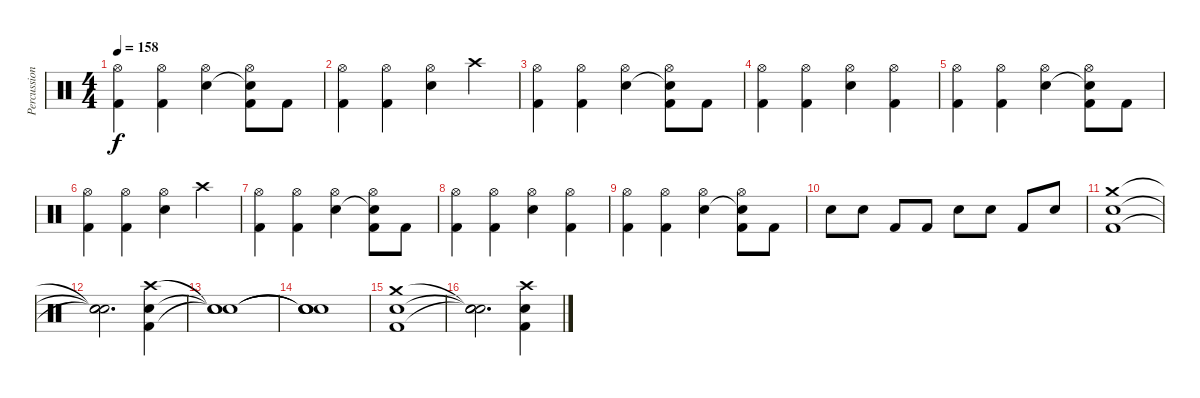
\track ("Percussions" "Percussion") {instrument percussion}
\staff {score}
\articulation defaults
\ts (4 4)
\tempo 158
\clef neutral
\ks c
("Hi-Hat (open)" "Kick (hit) 2").4{dy f} ("Hi-Hat (open)" "Kick (hit) 2").4 ("Hi-Hat (open)" "Electric Snare (hit)").4 ("Hi-Hat (open)" "Snare (hit)"{t} "Kick (hit) 2").8 "Kick (hit) 2".8 |
("Hi-Hat (open)" "Kick (hit) 2").4 ("Hi-Hat (open)" "Kick (hit) 2").4 ("Hi-Hat (open)" "Electric Snare (hit)").4 "Crash high (hit)".4 |
("Hi-Hat (open)" "Kick (hit) 2").4 ("Hi-Hat (open)" "Kick (hit) 2").4 ("Hi-Hat (open)" "Electric Snare (hit)").4 ("Hi-Hat (open)" "Snare (hit)"{t} "Kick (hit) 2").8 "Kick (hit) 2".8 |
("Hi-Hat (open)" "Kick (hit) 2").4 ("Hi-Hat (open)" "Kick (hit) 2").4 ("Hi-Hat (open)" "Electric Snare (hit)").4 ("Hi-Hat (open)" "Kick (hit) 2").4 |
("Hi-Hat (open)" "Kick (hit) 2").4 ("Hi-Hat (open)" "Kick (hit) 2").4 ("Hi-Hat (open)" "Electric Snare (hit)").4 ("Hi-Hat (open)" "Snare (hit)"{t} "Kick (hit) 2").8 "Kick (hit) 2".8 |
("Hi-Hat (open)" "Kick (hit) 2").4 ("Hi-Hat (open)" "Kick (hit) 2").4 ("Hi-Hat (open)" "Electric Snare (hit)").4 "Crash high (hit)".4 |
("Hi-Hat (open)" "Kick (hit) 2").4 ("Hi-Hat (open)" "Kick (hit) 2").4 ("Hi-Hat (open)" "Electric Snare (hit)").4 ("Hi-Hat (open)" "Snare (hit)"{t} "Kick (hit) 2").8 "Kick (hit) 2".8 |
("Hi-Hat (open)" "Kick (hit) 2").4 ("Hi-Hat (open)" "Kick (hit) 2").4 ("Hi-Hat (open)" "Electric Snare (hit)").4 ("Hi-Hat (open)" "Kick (hit) 2").4 |
("Hi-Hat (open)" "Kick (hit) 2").4 ("Hi-Hat (open)" "Kick (hit) 2").4 ("Hi-Hat (open)" "Electric Snare (hit)").4 ("Hi-Hat (open)" "Snare (hit)"{t} "Kick (hit) 2").8 "Kick (hit) 2".8 |
"Electric Snare (hit)".8 "Electric Snare (hit)".8 "Kick (hit) 2".8 "Kick (hit) 2".8 "Electric Snare (hit)".8 "Electric Snare (hit)".8 "Kick (hit) 2".8 "Electric Snare (hit)".8 |
("Crash medium (hit)" "Electric Snare (hit)" "Kick (hit) 2").1 |
("Snare (hit)"{t} "Snare (hit)"{t} "Snare (hit)"{t}).2{d} ("Crash high (hit)" "Electric Snare (hit)" "Kick (hit) 2").4 |
("Snare (hit)"{t} "Snare (hit)"{t} "Snare (hit)"{t}).1 |
("Snare (hit)"{t} "Snare (hit)"{t} "Snare (hit)"{t} "Snare (hit)").1 |
("Crash medium (hit)" "Electric Snare (hit)" "Kick (hit) 2").1 |
("Snare (hit)"{t} "Snare (hit)"{t} "Snare (hit)"{t}).2{d} ("Crash high (hit)" "Electric Snare (hit)" "Kick (hit) 2").4
